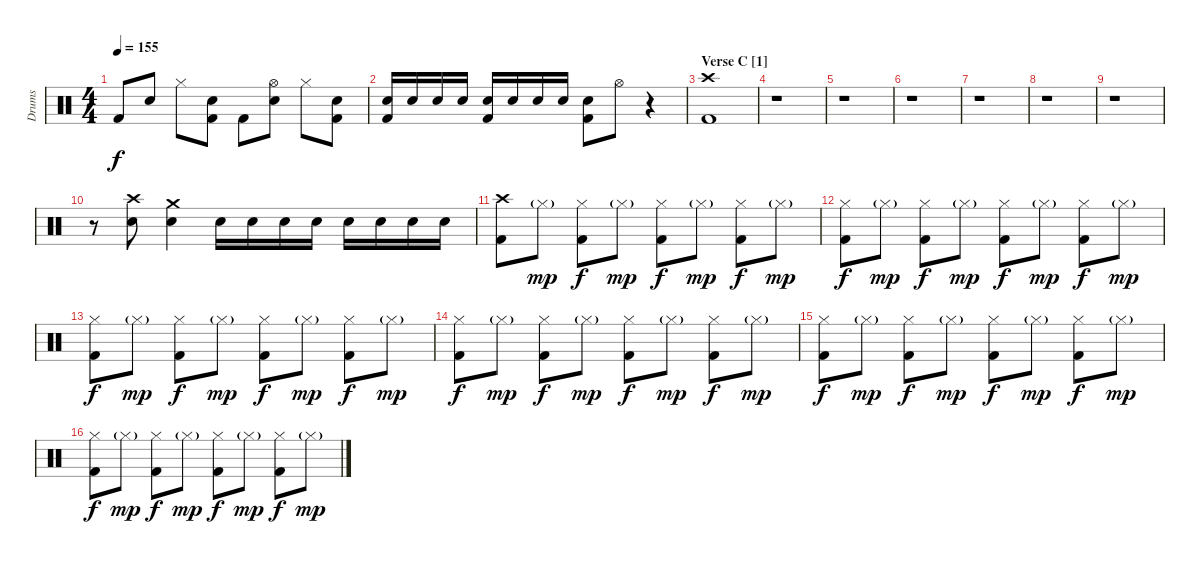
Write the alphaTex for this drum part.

\track ("Drums" "Drums") {instrument percussion}
\staff {score}
\articulation defaults
\ts (4 4)
\tempo 155
\clef neutral
\ks c "Kick (hit) 2".8{dy f} "Electric Snare (hit)".8 "Hi-Hat (closed)".8
("Electric Snare (hit)" "Kick (hit) 2").8 "Kick (hit) 2".8 ("Hi-Hat (open)" "Electric Snare (hit)").8 "Hi-Hat (closed)".8 ("Electric Snare (hit)" "Kick (hit) 2").8 |
("Electric Snare (hit)" "Kick (hit) 2").16 "Electric Snare (hit)".16 "Electric Snare (hit)".16 "Electric Snare (hit)".16 ("Electric Snare (hit)" "Kick (hit) 2").16 "Electric Snare (hit)".16 "Electric Snare (hit)".16 "Electric Snare (hit)".16 ("Electric Snare (hit)" "Kick (hit) 2").8 "Hi-Hat (open)".8 r.4 |
\section ("" "Verse C [1]")
("Crash high (hit)" "Kick (hit) 2").1 |
r.1 |
r.1 |
r.1 |
r.1 |
r.1 |
r.1 |
r.8 ("Crash high (hit)" "Electric Snare (hit)").8 ("Crash medium (hit)" "Electric Snare (hit)").4 "Electric Snare (hit)".16 "Electric Snare (hit)".16 "Electric Snare (hit)".16 "Electric Snare (hit)".16 "Electric Snare (hit)".16 "Electric Snare (hit)".16 "Electric Snare (hit)".16 "Electric Snare (hit)".16 |
("Crash high (hit)" "Kick (hit) 2").8 "Hi-Hat (closed)"{g}.8{dy mp} ("Hi-Hat (closed)" "Kick (hit) 2").8{dy f} "Hi-Hat (closed)"{g}.8{dy mp} ("Hi-Hat (closed)" "Kick (hit) 2").8{dy f} "Hi-Hat (closed)"{g}.8{dy mp} ("Hi-Hat (closed)" "Kick (hit) 2").8{dy f} "Hi-Hat (closed)"{g}.8{dy mp} |
("Hi-Hat (closed)" "Kick (hit) 2").8{dy f} "Hi-Hat (closed)"{g}.8{dy mp} ("Hi-Hat (closed)" "Kick (hit) 2").8{dy f} "Hi-Hat (closed)"{g}.8{dy mp} ("Hi-Hat (closed)" "Kick (hit) 2").8{dy f} "Hi-Hat (closed)"{g}.8{dy mp} ("Hi-Hat (closed)" "Kick (hit) 2").8{dy f} "Hi-Hat (closed)"{g}.8{dy mp} |
("Hi-Hat (closed)" "Kick (hit) 2").8{dy f} "Hi-Hat (closed)"{g}.8{dy mp} ("Hi-Hat (closed)" "Kick (hit) 2").8{dy f} "Hi-Hat (closed)"{g}.8{dy mp} ("Hi-Hat (closed)" "Kick (hit) 2").8{dy f} "Hi-Hat (closed)"{g}.8{dy mp} ("Hi-Hat (closed)" "Kick (hit) 2").8{dy f} "Hi-Hat (closed)"{g}.8{dy mp} |
("Hi-Hat (closed)" "Kick (hit) 2").8{dy f} "Hi-Hat (closed)"{g}.8{dy mp} ("Hi-Hat (closed)" "Kick (hit) 2").8{dy f} "Hi-Hat (closed)"{g}.8{dy mp} ("Hi-Hat (closed)" "Kick (hit) 2").8{dy f} "Hi-Hat (closed)"{g}.8{dy mp} ("Hi-Hat (closed)" "Kick (hit) 2").8{dy f} "Hi-Hat (closed)"{g}.8{dy mp} |
("Hi-Hat (closed)" "Kick (hit) 2").8{dy f} "Hi-Hat (closed)"{g}.8{dy mp} ("Hi-Hat (closed)" "Kick (hit) 2").8{dy f} "Hi-Hat (closed)"{g}.8{dy mp} ("Hi-Hat (closed)" "Kick (hit) 2").8{dy f} "Hi-Hat (closed)"{g}.8{dy mp} ("Hi-Hat (closed)" "Kick (hit) 2").8{dy f} "Hi-Hat (closed)"{g}.8{dy mp} |
("Hi-Hat (closed)" "Kick (hit) 2").8{dy f} "Hi-Hat (closed)"{g}.8{dy mp} ("Hi-Hat (closed)" "Kick (hit) 2").8{dy f} "Hi-Hat (closed)"{g}.8{dy mp} ("Hi-Hat (closed)" "Kick (hit) 2").8{dy f} "Hi-Hat (closed)"{g}.8{dy mp} ("Hi-Hat (closed)" "Kick (hit) 2").8{dy f} "Hi-Hat (closed)"{g}.8{dy mp}
